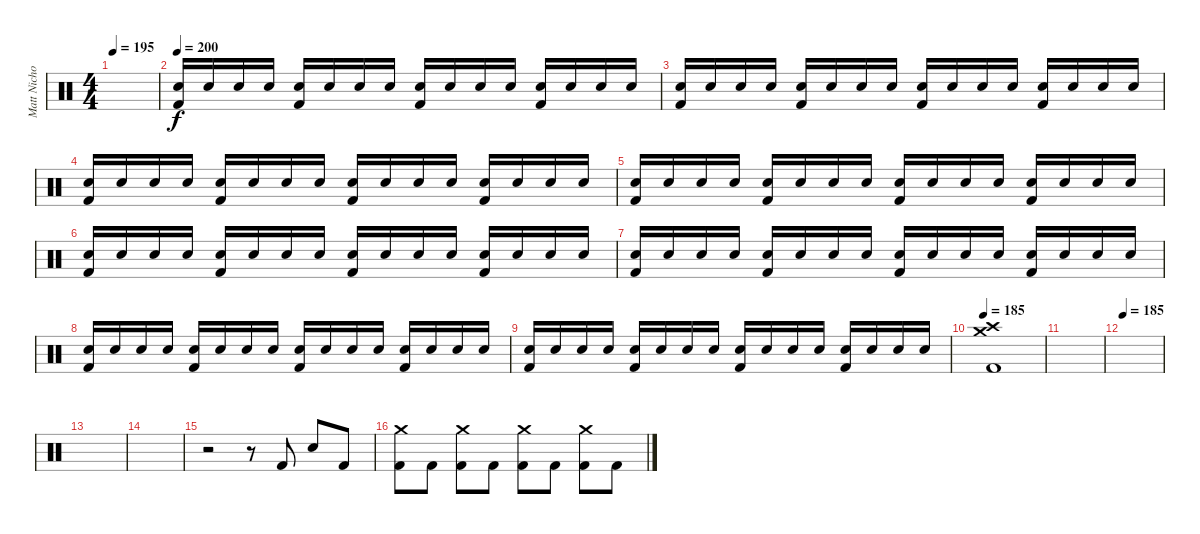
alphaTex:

\track ("Matt Nichols" "Matt Nicho") {instrument percussion}
\staff {score}
\articulation defaults
\ts (4 4)
\tempo 195
\clef neutral
\ks c
|
\tempo 200
("Electric Snare (hit)" "Kick (hit) 2").16 "Electric Snare (hit)".16 "Electric Snare (hit)".16 "Electric Snare (hit)".16 ("Electric Snare (hit)" "Kick (hit) 2").16 "Electric Snare (hit)".16 "Electric Snare (hit)".16 "Electric Snare (hit)".16 ("Electric Snare (hit)" "Kick (hit) 2").16 "Electric Snare (hit)".16 "Electric Snare (hit)".16 "Electric Snare (hit)".16 ("Electric Snare (hit)" "Kick (hit) 2").16 "Electric Snare (hit)".16 "Electric Snare (hit)".16 "Electric Snare (hit)".16 |
("Electric Snare (hit)" "Kick (hit) 2").16 "Electric Snare (hit)".16 "Electric Snare (hit)".16 "Electric Snare (hit)".16 ("Electric Snare (hit)" "Kick (hit) 2").16 "Electric Snare (hit)".16 "Electric Snare (hit)".16 "Electric Snare (hit)".16 ("Electric Snare (hit)" "Kick (hit) 2").16 "Electric Snare (hit)".16 "Electric Snare (hit)".16 "Electric Snare (hit)".16 ("Electric Snare (hit)" "Kick (hit) 2").16 "Electric Snare (hit)".16 "Electric Snare (hit)".16 "Electric Snare (hit)".16 |
("Electric Snare (hit)" "Kick (hit) 2").16 "Electric Snare (hit)".16 "Electric Snare (hit)".16 "Electric Snare (hit)".16 ("Electric Snare (hit)" "Kick (hit) 2").16 "Electric Snare (hit)".16 "Electric Snare (hit)".16 "Electric Snare (hit)".16 ("Electric Snare (hit)" "Kick (hit) 2").16 "Electric Snare (hit)".16 "Electric Snare (hit)".16 "Electric Snare (hit)".16 ("Electric Snare (hit)" "Kick (hit) 2").16 "Electric Snare (hit)".16 "Electric Snare (hit)".16 "Electric Snare (hit)".16 |
("Electric Snare (hit)" "Kick (hit) 2").16 "Electric Snare (hit)".16 "Electric Snare (hit)".16 "Electric Snare (hit)".16 ("Electric Snare (hit)" "Kick (hit) 2").16 "Electric Snare (hit)".16 "Electric Snare (hit)".16 "Electric Snare (hit)".16 ("Electric Snare (hit)" "Kick (hit) 2").16 "Electric Snare (hit)".16 "Electric Snare (hit)".16 "Electric Snare (hit)".16 ("Electric Snare (hit)" "Kick (hit) 2").16 "Electric Snare (hit)".16 "Electric Snare (hit)".16 "Electric Snare (hit)".16 |
("Electric Snare (hit)" "Kick (hit) 2").16 "Electric Snare (hit)".16 "Electric Snare (hit)".16 "Electric Snare (hit)".16 ("Electric Snare (hit)" "Kick (hit) 2").16 "Electric Snare (hit)".16 "Electric Snare (hit)".16 "Electric Snare (hit)".16 ("Electric Snare (hit)" "Kick (hit) 2").16 "Electric Snare (hit)".16 "Electric Snare (hit)".16 "Electric Snare (hit)".16 ("Electric Snare (hit)" "Kick (hit) 2").16 "Electric Snare (hit)".16 "Electric Snare (hit)".16 "Electric Snare (hit)".16 |
("Electric Snare (hit)" "Kick (hit) 2").16 "Electric Snare (hit)".16 "Electric Snare (hit)".16 "Electric Snare (hit)".16 ("Electric Snare (hit)" "Kick (hit) 2").16 "Electric Snare (hit)".16 "Electric Snare (hit)".16 "Electric Snare (hit)".16 ("Electric Snare (hit)" "Kick (hit) 2").16 "Electric Snare (hit)".16 "Electric Snare (hit)".16 "Electric Snare (hit)".16 ("Electric Snare (hit)" "Kick (hit) 2").16 "Electric Snare (hit)".16 "Electric Snare (hit)".16 "Electric Snare (hit)".16 |
("Electric Snare (hit)" "Kick (hit) 2").16 "Electric Snare (hit)".16 "Electric Snare (hit)".16 "Electric Snare (hit)".16 ("Electric Snare (hit)" "Kick (hit) 2").16 "Electric Snare (hit)".16 "Electric Snare (hit)".16 "Electric Snare (hit)".16 ("Electric Snare (hit)" "Kick (hit) 2").16 "Electric Snare (hit)".16 "Electric Snare (hit)".16 "Electric Snare (hit)".16 ("Electric Snare (hit)" "Kick (hit) 2").16 "Electric Snare (hit)".16 "Electric Snare (hit)".16 "Electric Snare (hit)".16 |
("Electric Snare (hit)" "Kick (hit) 2").16 "Electric Snare (hit)".16 "Electric Snare (hit)".16 "Electric Snare (hit)".16 ("Electric Snare (hit)" "Kick (hit) 2").16 "Electric Snare (hit)".16 "Electric Snare (hit)".16 "Electric Snare (hit)".16 ("Electric Snare (hit)" "Kick (hit) 2").16 "Electric Snare (hit)".16 "Electric Snare (hit)".16 "Electric Snare (hit)".16 ("Electric Snare (hit)" "Kick (hit) 2").16 "Electric Snare (hit)".16 "Electric Snare (hit)".16 "Electric Snare (hit)".16 |
\tempo 185
("Crash high (hit)" "Crash medium (hit)" "Kick (hit) 2").1 |
|
\tempo 185
|
|
|
r.2 r.8 "Kick (hit) 2".8 "Electric Snare (hit)".8 "Kick (hit) 2".8 |
("Crash medium (hit)" "Kick (hit) 2").8 "Kick (hit) 2".8 ("Crash medium (hit)" "Kick (hit) 2").8 "Kick (hit) 2".8 ("Crash medium (hit)" "Kick (hit) 2").8 "Kick (hit) 2".8 ("Crash medium (hit)" "Kick (hit) 2").8 "Kick (hit) 2".8
